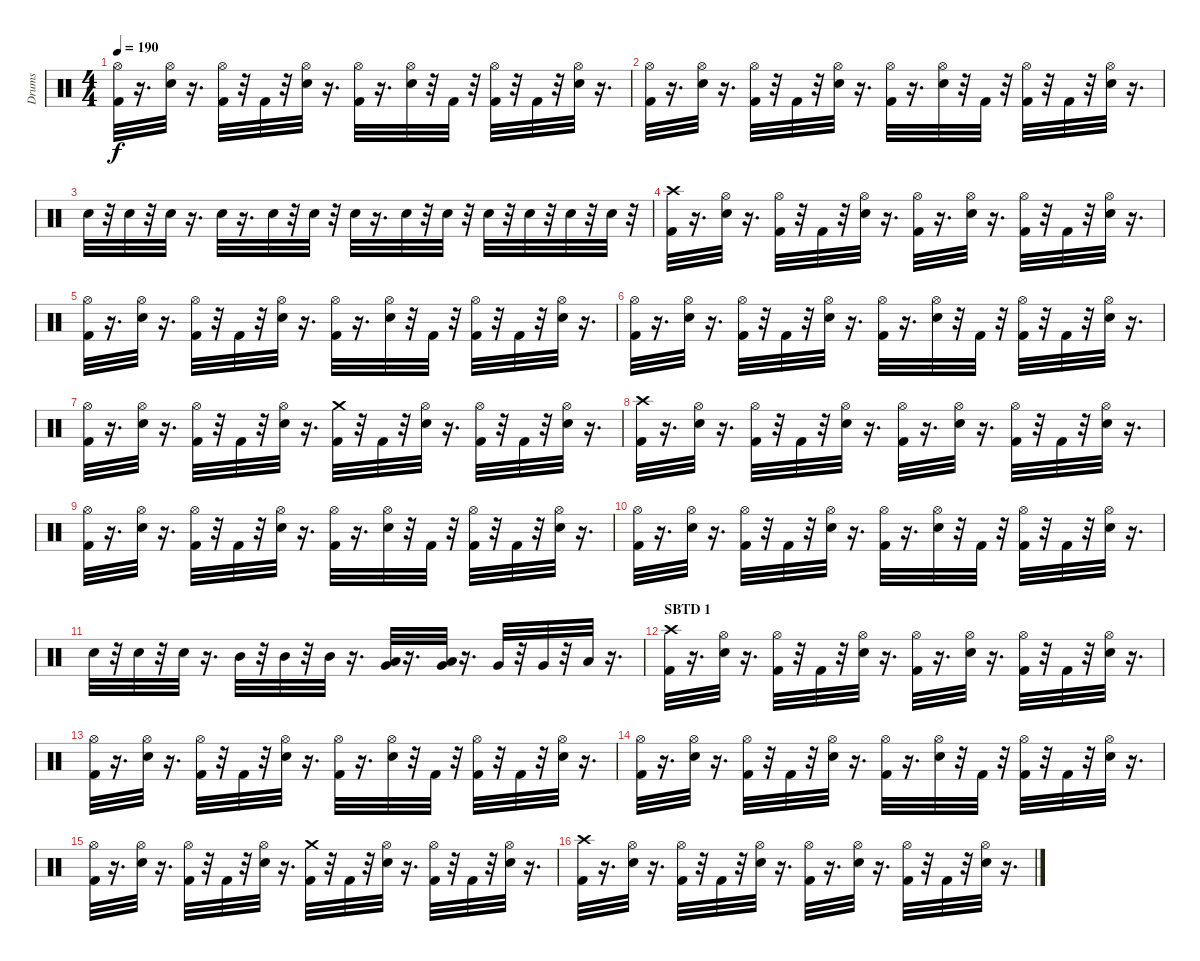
\track ("Drums" "Drums") {instrument percussion}
\staff {score}
\articulation defaults
\ts (4 4)
\tempo 190
\clef neutral
\ks c
("Kick (hit) 2" "Hi-Hat (open)").32{dy f} r.16{d} ("Hi-Hat (open)" "Snare (hit) 2").32 r.16{d} ("Kick (hit) 2" "Hi-Hat (open)").32 r.32 "Kick (hit) 2".32 r.32 ("Hi-Hat (open)" "Snare (hit) 2").32 r.16{d} ("Kick (hit) 2" "Hi-Hat (open)").32 r.16{d} ("Hi-Hat (open)" "Snare (hit) 2").32 r.32 "Kick (hit) 2".32 r.32 ("Hi-Hat (open)" "Kick (hit) 2").32 r.32 "Kick (hit) 2".32 r.32 ("Snare (hit) 2" "Hi-Hat (open)").32 r.16{d} |
("Kick (hit) 2" "Hi-Hat (open)").32 r.16{d} ("Snare (hit) 2" "Hi-Hat (open)").32 r.16{d} ("Kick (hit) 2" "Hi-Hat (open)").32 r.32 "Kick (hit) 2".32 r.32 ("Hi-Hat (open)" "Snare (hit) 2").32 r.16{d} ("Hi-Hat (open)" "Kick (hit) 2").32 r.16{d} ("Hi-Hat (open)" "Snare (hit) 2").32 r.32 "Kick (hit) 2".32 r.32 ("Kick (hit) 2" "Hi-Hat (open)").32 r.32 "Kick (hit) 2".32 r.32 ("Snare (hit) 2" "Hi-Hat (open)").32 r.16{d} |
"Snare (hit) 2".32 r.32 "Snare (hit) 2".32 r.32 "Snare (hit) 2".32 r.16{d} "Snare (hit) 2".32 r.16{d} "Snare (hit) 2".32 r.32 "Snare (hit) 2".32 r.32 "Snare (hit) 2".32 r.16{d} "Snare (hit) 2".32 r.32 "Snare (hit) 2".32 r.32 "Snare (hit) 2".32 r.32 "Snare (hit) 2".32 r.32 "Snare (hit) 2".32 r.32 "Snare (hit) 2".32 r.32 |
("Crash high (hit)" "Kick (hit) 2").32 r.16{d} ("Hi-Hat (open)" "Snare (hit) 2").32 r.16{d} ("Kick (hit) 2" "Hi-Hat (open)").32 r.32 "Kick (hit) 2".32 r.32 ("Snare (hit) 2" "Hi-Hat (open)").32 r.16{d} ("Kick (hit) 2" "Hi-Hat (open)").32 r.16{d} ("Hi-Hat (open)" "Snare (hit) 2").32 r.16{d} ("Kick (hit) 2" "Hi-Hat (open)").32 r.32 "Kick (hit) 2".32 r.32 ("Snare (hit) 2" "Hi-Hat (open)").32 r.16{d} |
("Hi-Hat (open)" "Kick (hit) 2").32 r.16{d} ("Hi-Hat (open)" "Snare (hit) 2").32 r.16{d} ("Kick (hit) 2" "Hi-Hat (open)").32 r.32 "Kick (hit) 2".32 r.32 ("Hi-Hat (open)" "Snare (hit) 2").32 r.16{d} ("Hi-Hat (open)" "Kick (hit) 2").32 r.16{d} ("Snare (hit) 2" "Hi-Hat (open)").32 r.32 "Kick (hit) 2".32 r.32 ("Hi-Hat (open)" "Kick (hit) 2").32 r.32 "Kick (hit) 2".32 r.32 ("Hi-Hat (open)" "Snare (hit) 2").32 r.16{d} |
("Hi-Hat (open)" "Kick (hit) 2").32 r.16{d} ("Hi-Hat (open)" "Snare (hit) 2").32 r.16{d} ("Kick (hit) 2" "Hi-Hat (open)").32 r.32 "Kick (hit) 2".32 r.32 ("Snare (hit) 2" "Hi-Hat (open)").32 r.16{d} ("Hi-Hat (open)" "Kick (hit) 2").32 r.16{d} ("Snare (hit) 2" "Hi-Hat (open)").32 r.32 "Kick (hit) 2".32 r.32 ("Hi-Hat (open)" "Kick (hit) 2").32 r.32 "Kick (hit) 2".32 r.32 ("Hi-Hat (open)" "Snare (hit) 2").32 r.16{d} |
("Kick (hit) 2" "Hi-Hat (open)").32 r.16{d} ("Hi-Hat (open)" "Snare (hit) 2").32 r.16{d} ("Kick (hit) 2" "Hi-Hat (open)").32 r.32 "Kick (hit) 2".32 r.32 ("Snare (hit) 2" "Hi-Hat (open)").32 r.16{d} ("Kick (hit) 2" "Crash medium (hit)").32 r.32 "Kick (hit) 2".32 r.32 ("Snare (hit) 2" "Hi-Hat (open)").32 r.16{d} ("Kick (hit) 2" "Hi-Hat (open)").32 r.32 "Kick (hit) 2".32 r.32 ("Snare (hit) 2" "Hi-Hat (open)").32 r.16{d} |
("Kick (hit) 2" "Crash high (hit)").32 r.16{d} ("Snare (hit) 2" "Hi-Hat (open)").32 r.16{d} ("Hi-Hat (open)" "Kick (hit) 2").32 r.32 "Kick (hit) 2".32 r.32 ("Snare (hit) 2" "Hi-Hat (open)").32 r.16{d} ("Kick (hit) 2" "Hi-Hat (open)").32 r.16{d} ("Hi-Hat (open)" "Snare (hit) 2").32 r.16{d} ("Kick (hit) 2" "Hi-Hat (open)").32 r.32 "Kick (hit) 2".32 r.32 ("Snare (hit) 2" "Hi-Hat (open)").32 r.16{d} |
("Kick (hit) 2" "Hi-Hat (open)").32 r.16{d} ("Hi-Hat (open)" "Snare (hit) 2").32 r.16{d} ("Kick (hit) 2" "Hi-Hat (open)").32 r.32 "Kick (hit) 2".32 r.32 ("Snare (hit) 2" "Hi-Hat (open)").32 r.16{d} ("Hi-Hat (open)" "Kick (hit) 2").32 r.16{d} ("Hi-Hat (open)" "Snare (hit) 2").32 r.32 "Kick (hit) 2".32 r.32 ("Hi-Hat (open)" "Kick (hit) 2").32 r.32 "Kick (hit) 2".32 r.32 ("Snare (hit) 2" "Hi-Hat (open)").32 r.16{d} |
("Hi-Hat (open)" "Kick (hit) 2").32 r.16{d} ("Snare (hit) 2" "Hi-Hat (open)").32 r.16{d} ("Kick (hit) 2" "Hi-Hat (open)").32 r.32 "Kick (hit) 2".32 r.32 ("Hi-Hat (open)" "Snare (hit) 2").32 r.16{d} ("Hi-Hat (open)" "Kick (hit) 2").32 r.16{d} ("Snare (hit) 2" "Hi-Hat (open)").32 r.32 "Kick (hit) 2".32 r.32 ("Hi-Hat (open)" "Kick (hit) 2").32 r.32 "Kick (hit) 2".32 r.32 ("Snare (hit) 2" "Hi-Hat (open)").32 r.16{d} |
"Snare (hit) 2".32 r.32 "Snare (hit) 2".32 r.32 "Snare (hit) 2".32 r.16{d} "Mid Tom (hit)".32 r.32 "Mid Tom (hit)".32 r.32 "Mid Tom (hit)".32 r.16{d} ("Low Tom (hit)" "Very Low Tom (hit)").32 r.16{d} ("Very Low Tom (hit)" "Low Tom (hit)").32 r.16{d} "Very Low Tom (hit)".32 r.32 "Very Low Tom (hit)".32 r.32 "Low Floor Tom (hit)".32 r.16{d} |
\section ("" "SBTD 1")
("Crash high (hit)" "Kick (hit) 2").32 r.16{d} ("Hi-Hat (open)" "Snare (hit) 2").32 r.16{d} ("Hi-Hat (open)" "Kick (hit) 2").32 r.32 "Kick (hit) 2".32 r.32 ("Hi-Hat (open)" "Snare (hit) 2").32 r.16{d} ("Kick (hit) 2" "Hi-Hat (open)").32 r.16{d} ("Snare (hit) 2" "Hi-Hat (open)").32 r.16{d} ("Kick (hit) 2" "Hi-Hat (open)").32 r.32 "Kick (hit) 2".32 r.32 ("Hi-Hat (open)" "Snare (hit) 2").32 r.16{d} |
("Kick (hit) 2" "Hi-Hat (open)").32 r.16{d} ("Snare (hit) 2" "Hi-Hat (open)").32 r.16{d} ("Hi-Hat (open)" "Kick (hit) 2").32 r.32 "Kick (hit) 2".32 r.32 ("Hi-Hat (open)" "Snare (hit) 2").32 r.16{d} ("Kick (hit) 2" "Hi-Hat (open)").32 r.16{d} ("Snare (hit) 2" "Hi-Hat (open)").32 r.32 "Kick (hit) 2".32 r.32 ("Hi-Hat (open)" "Kick (hit) 2").32 r.32 "Kick (hit) 2".32 r.32 ("Hi-Hat (open)" "Snare (hit) 2").32 r.16{d} |
("Hi-Hat (open)" "Kick (hit) 2").32 r.16{d} ("Hi-Hat (open)" "Snare (hit) 2").32 r.16{d} ("Kick (hit) 2" "Hi-Hat (open)").32 r.32 "Kick (hit) 2".32 r.32 ("Snare (hit) 2" "Hi-Hat (open)").32 r.16{d} ("Kick (hit) 2" "Hi-Hat (open)").32 r.16{d} ("Hi-Hat (open)" "Snare (hit) 2").32 r.32 "Kick (hit) 2".32 r.32 ("Hi-Hat (open)" "Kick (hit) 2").32 r.32 "Kick (hit) 2".32 r.32 ("Hi-Hat (open)" "Snare (hit) 2").32 r.16{d} |
("Kick (hit) 2" "Hi-Hat (open)").32 r.16{d} ("Hi-Hat (open)" "Snare (hit) 2").32 r.16{d} ("Kick (hit) 2" "Hi-Hat (open)").32 r.32 "Kick (hit) 2".32 r.32 ("Hi-Hat (open)" "Snare (hit) 2").32 r.16{d} ("Crash medium (hit)" "Kick (hit) 2").32 r.32 "Kick (hit) 2".32 r.32 ("Hi-Hat (open)" "Snare (hit) 2").32 r.16{d} ("Hi-Hat (open)" "Kick (hit) 2").32 r.32 "Kick (hit) 2".32 r.32 ("Hi-Hat (open)" "Snare (hit) 2").32 r.16{d} |
("Kick (hit) 2" "Crash high (hit)").32 r.16{d} ("Snare (hit) 2" "Hi-Hat (open)").32 r.16{d} ("Kick (hit) 2" "Hi-Hat (open)").32 r.32 "Kick (hit) 2".32 r.32 ("Snare (hit) 2" "Hi-Hat (open)").32 r.16{d} ("Hi-Hat (open)" "Kick (hit) 2").32 r.16{d} ("Hi-Hat (open)" "Snare (hit) 2").32 r.16{d} ("Hi-Hat (open)" "Kick (hit) 2").32 r.32 "Kick (hit) 2".32 r.32 ("Hi-Hat (open)" "Snare (hit) 2").32 r.16{d}
